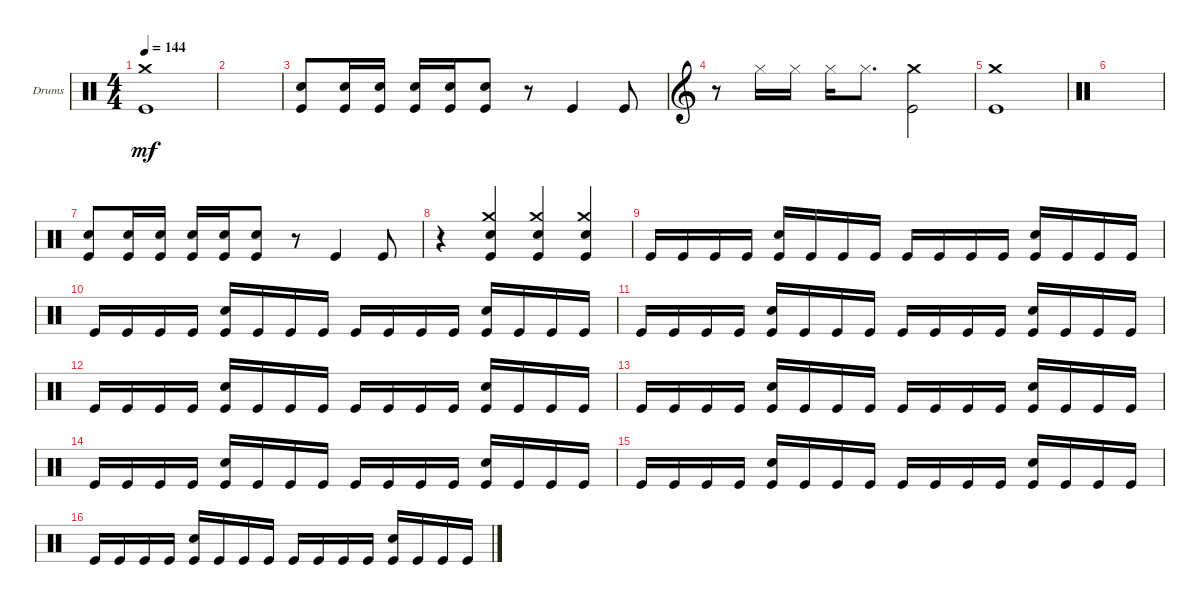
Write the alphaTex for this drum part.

\bracketExtendMode groupsimilarinstruments
\firstSystemTrackNameOrientation horizontal
\otherSystemsTrackNameOrientation horizontal
\track ("Drums" "Drums") {instrument percussion}
\staff {score}
\articulation defaults
\ts (4 4)
\tempo 144
\clef neutral
\ks c
("Kick (hit)" "Crash medium (hit)").1{dy mf} |
|
("Kick (hit)" "Snare (hit) 2").8 ("Kick (hit)" "Snare (hit) 2").16 ("Kick (hit)" "Snare (hit) 2").16 ("Kick (hit)" "Snare (hit) 2").16 ("Kick (hit)" "Snare (hit) 2").16 ("Kick (hit)" "Snare (hit) 2").8 r.8 "Kick (hit)".4 "Kick (hit)".8 |
\clef g2
r.8 "Hi-Hat (closed)".16 "Hi-Hat (closed)".16 "Hi-Hat (closed)".16 "Hi-Hat (closed)".8{d} ("Kick (hit)" "Crash medium (hit)").2 |
("Kick (hit)" "Crash medium (hit)").1 |
\clef neutral
|
("Kick (hit)" "Snare (hit) 2").8 ("Kick (hit)" "Snare (hit) 2").16 ("Kick (hit)" "Snare (hit) 2").16 ("Kick (hit)" "Snare (hit) 2").16 ("Kick (hit)" "Snare (hit) 2").16 ("Kick (hit)" "Snare (hit) 2").8 r.8 "Kick (hit)".4 "Kick (hit)".8 |
r.4 ("Kick (hit)" "Crash medium (hit)" "Snare (hit) 2").4 ("Kick (hit)" "Crash medium (hit)" "Snare (hit) 2").4 ("Kick (hit)" "Crash medium (hit)" "Snare (hit) 2").4 |
"Kick (hit)".16 "Kick (hit)".16 "Kick (hit)".16 "Kick (hit)".16 ("Kick (hit)" "Snare (hit) 2").16 "Kick (hit)".16 "Kick (hit)".16 "Kick (hit)".16 "Kick (hit)".16 "Kick (hit)".16 "Kick (hit)".16 "Kick (hit)".16 ("Kick (hit)" "Snare (hit) 2").16 "Kick (hit)".16 "Kick (hit)".16 "Kick (hit)".16 |
"Kick (hit)".16 "Kick (hit)".16 "Kick (hit)".16 "Kick (hit)".16 ("Kick (hit)" "Snare (hit) 2").16 "Kick (hit)".16 "Kick (hit)".16 "Kick (hit)".16 "Kick (hit)".16 "Kick (hit)".16 "Kick (hit)".16 "Kick (hit)".16 ("Kick (hit)" "Snare (hit) 2").16 "Kick (hit)".16 "Kick (hit)".16 "Kick (hit)".16 |
"Kick (hit)".16 "Kick (hit)".16 "Kick (hit)".16 "Kick (hit)".16 ("Kick (hit)" "Snare (hit) 2").16 "Kick (hit)".16 "Kick (hit)".16 "Kick (hit)".16 "Kick (hit)".16 "Kick (hit)".16 "Kick (hit)".16 "Kick (hit)".16 ("Kick (hit)" "Snare (hit) 2").16 "Kick (hit)".16 "Kick (hit)".16 "Kick (hit)".16 |
"Kick (hit)".16 "Kick (hit)".16 "Kick (hit)".16 "Kick (hit)".16 ("Kick (hit)" "Snare (hit) 2").16 "Kick (hit)".16 "Kick (hit)".16 "Kick (hit)".16 "Kick (hit)".16 "Kick (hit)".16 "Kick (hit)".16 "Kick (hit)".16 ("Kick (hit)" "Snare (hit) 2").16 "Kick (hit)".16 "Kick (hit)".16 "Kick (hit)".16 |
"Kick (hit)".16 "Kick (hit)".16 "Kick (hit)".16 "Kick (hit)".16 ("Kick (hit)" "Snare (hit) 2").16 "Kick (hit)".16 "Kick (hit)".16 "Kick (hit)".16 "Kick (hit)".16 "Kick (hit)".16 "Kick (hit)".16 "Kick (hit)".16 ("Kick (hit)" "Snare (hit) 2").16 "Kick (hit)".16 "Kick (hit)".16 "Kick (hit)".16 |
"Kick (hit)".16 "Kick (hit)".16 "Kick (hit)".16 "Kick (hit)".16 ("Kick (hit)" "Snare (hit) 2").16 "Kick (hit)".16 "Kick (hit)".16 "Kick (hit)".16 "Kick (hit)".16 "Kick (hit)".16 "Kick (hit)".16 "Kick (hit)".16 ("Kick (hit)" "Snare (hit) 2").16 "Kick (hit)".16 "Kick (hit)".16 "Kick (hit)".16 |
"Kick (hit)".16 "Kick (hit)".16 "Kick (hit)".16 "Kick (hit)".16 ("Kick (hit)" "Snare (hit) 2").16 "Kick (hit)".16 "Kick (hit)".16 "Kick (hit)".16 "Kick (hit)".16 "Kick (hit)".16 "Kick (hit)".16 "Kick (hit)".16 ("Kick (hit)" "Snare (hit) 2").16 "Kick (hit)".16 "Kick (hit)".16 "Kick (hit)".16 |
"Kick (hit)".16 "Kick (hit)".16 "Kick (hit)".16 "Kick (hit)".16 ("Kick (hit)" "Snare (hit) 2").16 "Kick (hit)".16 "Kick (hit)".16 "Kick (hit)".16 "Kick (hit)".16 "Kick (hit)".16 "Kick (hit)".16 "Kick (hit)".16 ("Kick (hit)" "Snare (hit) 2").16 "Kick (hit)".16 "Kick (hit)".16 "Kick (hit)".16
